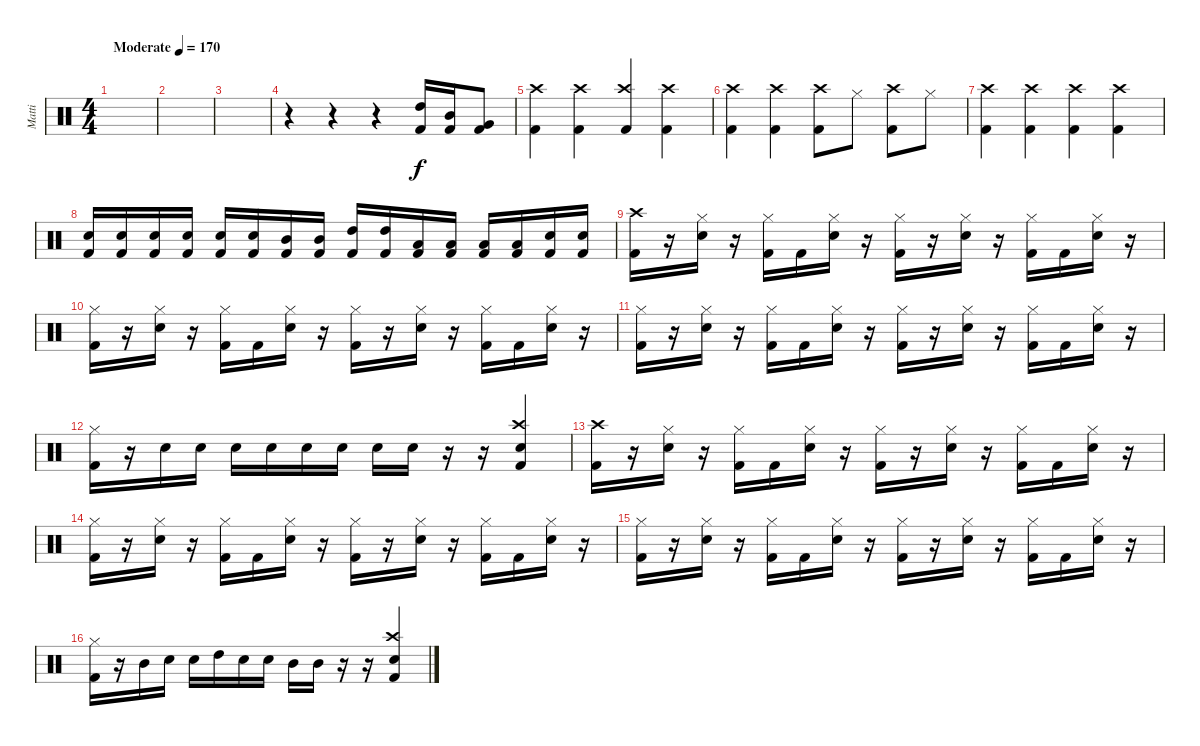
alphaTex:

\track ("Matti" "Matti") {instrument percussion}
\staff {score}
\articulation defaults
\ts (4 4)
\tempo (170 "Moderate")
\clef neutral
\ks c
|
|
|
r.4 r.4 r.4 ("Kick (hit) 2" "High Tom (hit)").16 ("Kick (hit) 2" "Mid Tom (hit)").16 ("Kick (hit) 2" "Very Low Tom (hit)").8 |
("Crash high (hit)" "Kick (hit) 2").4 ("Crash high (hit)" "Kick (hit) 2").4 ("Crash high (hit)" "Kick (hit) 2").4{beam Up} ("Crash high (hit)" "Kick (hit) 2").4 |
("Crash high (hit)" "Kick (hit) 2").4 ("Crash high (hit)" "Kick (hit) 2").4 ("Crash high (hit)" "Kick (hit) 2").8 "Hi-Hat (closed)".8 ("Crash high (hit)" "Kick (hit) 2").8 "Hi-Hat (closed)".8 |
("Crash high (hit)" "Kick (hit) 2").4 ("Crash high (hit)" "Kick (hit) 2").4 ("Crash high (hit)" "Kick (hit) 2").4 ("Crash high (hit)" "Kick (hit) 2").4 |
("Snare (hit) 2" "Kick (hit) 2").16 ("Snare (hit) 2" "Kick (hit) 2").16 ("Snare (hit) 2" "Kick (hit) 2").16 ("Snare (hit) 2" "Kick (hit) 2").16 ("Snare (hit) 2" "Kick (hit) 2").16 ("Snare (hit) 2" "Kick (hit) 2").16 ("Mid Tom (hit)" "Kick (hit) 2").16 ("Mid Tom (hit)" "Kick (hit) 2").16 ("High Tom (hit)" "Kick (hit) 2").16 ("High Tom (hit)" "Kick (hit) 2").16 ("Low Tom (hit)" "Kick (hit) 2").16 ("Low Tom (hit)" "Kick (hit) 2").16 ("Low Floor Tom (hit)" "Kick (hit) 2").16 ("Low Floor Tom (hit)" "Kick (hit) 2").16 ("Snare (hit) 2" "Kick (hit) 2").16 ("Snare (hit) 2" "Kick (hit) 2").16 |
("Kick (hit) 2" "Crash high (hit)").16 r.16 ("Snare (hit) 2" "Hi-Hat (closed)").16 r.16 ("Kick (hit) 2" "Hi-Hat (closed)").16 "Kick (hit) 2".16 ("Snare (hit) 2" "Hi-Hat (closed)").16 r.16 ("Kick (hit) 2" "Hi-Hat (closed)").16 r.16 ("Snare (hit) 2" "Hi-Hat (closed)").16 r.16 ("Kick (hit) 2" "Hi-Hat (closed)").16 "Kick (hit) 2".16 ("Snare (hit) 2" "Hi-Hat (closed)").16 r.16 |
("Kick (hit) 2" "Hi-Hat (closed)").16 r.16 ("Snare (hit) 2" "Hi-Hat (closed)").16 r.16 ("Kick (hit) 2" "Hi-Hat (closed)").16 "Kick (hit) 2".16 ("Snare (hit) 2" "Hi-Hat (closed)").16 r.16 ("Kick (hit) 2" "Hi-Hat (closed)").16 r.16 ("Snare (hit) 2" "Hi-Hat (closed)").16 r.16 ("Kick (hit) 2" "Hi-Hat (closed)").16 "Kick (hit) 2".16 ("Snare (hit) 2" "Hi-Hat (closed)").16 r.16 |
("Kick (hit) 2" "Hi-Hat (closed)").16 r.16 ("Snare (hit) 2" "Hi-Hat (closed)").16 r.16 ("Kick (hit) 2" "Hi-Hat (closed)").16 "Kick (hit) 2".16 ("Snare (hit) 2" "Hi-Hat (closed)").16 r.16 ("Kick (hit) 2" "Hi-Hat (closed)").16 r.16 ("Snare (hit) 2" "Hi-Hat (closed)").16 r.16 ("Kick (hit) 2" "Hi-Hat (closed)").16 "Kick (hit) 2".16 ("Snare (hit) 2" "Hi-Hat (closed)").16 r.16 |
("Kick (hit) 2" "Hi-Hat (closed)").16 r.16 "Snare (hit) 2".16 "Snare (hit) 2".16 "Snare (hit) 2".16 "Snare (hit) 2".16 "Snare (hit) 2".16 "Snare (hit) 2".16 "Snare (hit) 2".16 "Snare (hit) 2".16 r.16 r.16 ("Crash high (hit)" "Kick (hit) 2" "Snare (hit) 2").4 |
("Kick (hit) 2" "Crash high (hit)").16 r.16 ("Snare (hit) 2" "Hi-Hat (closed)").16 r.16 ("Kick (hit) 2" "Hi-Hat (closed)").16 "Kick (hit) 2".16 ("Snare (hit) 2" "Hi-Hat (closed)").16 r.16 ("Kick (hit) 2" "Hi-Hat (closed)").16 r.16 ("Snare (hit) 2" "Hi-Hat (closed)").16 r.16 ("Kick (hit) 2" "Hi-Hat (closed)").16 "Kick (hit) 2".16 ("Snare (hit) 2" "Hi-Hat (closed)").16 r.16 |
("Kick (hit) 2" "Hi-Hat (closed)").16 r.16 ("Snare (hit) 2" "Hi-Hat (closed)").16 r.16 ("Kick (hit) 2" "Hi-Hat (closed)").16 "Kick (hit) 2".16 ("Snare (hit) 2" "Hi-Hat (closed)").16 r.16 ("Kick (hit) 2" "Hi-Hat (closed)").16 r.16 ("Snare (hit) 2" "Hi-Hat (closed)").16 r.16 ("Kick (hit) 2" "Hi-Hat (closed)").16 "Kick (hit) 2".16 ("Snare (hit) 2" "Hi-Hat (closed)").16 r.16 |
("Kick (hit) 2" "Hi-Hat (closed)").16 r.16 ("Snare (hit) 2" "Hi-Hat (closed)").16 r.16 ("Kick (hit) 2" "Hi-Hat (closed)").16 "Kick (hit) 2".16 ("Snare (hit) 2" "Hi-Hat (closed)").16 r.16 ("Kick (hit) 2" "Hi-Hat (closed)").16 r.16 ("Snare (hit) 2" "Hi-Hat (closed)").16 r.16 ("Kick (hit) 2" "Hi-Hat (closed)").16 "Kick (hit) 2".16 ("Snare (hit) 2" "Hi-Hat (closed)").16 r.16 |
("Kick (hit) 2" "Hi-Hat (closed)").16 r.16 "Mid Tom (hit)".16 "Snare (hit) 2".16 "Snare (hit) 2".16 "High Tom (hit)".16 "Snare (hit) 2".16 "Snare (hit) 2".16 "Mid Tom (hit)".16 "Mid Tom (hit)".16 r.16 r.16 ("Crash high (hit)" "Kick (hit) 2" "Snare (hit) 2").4
